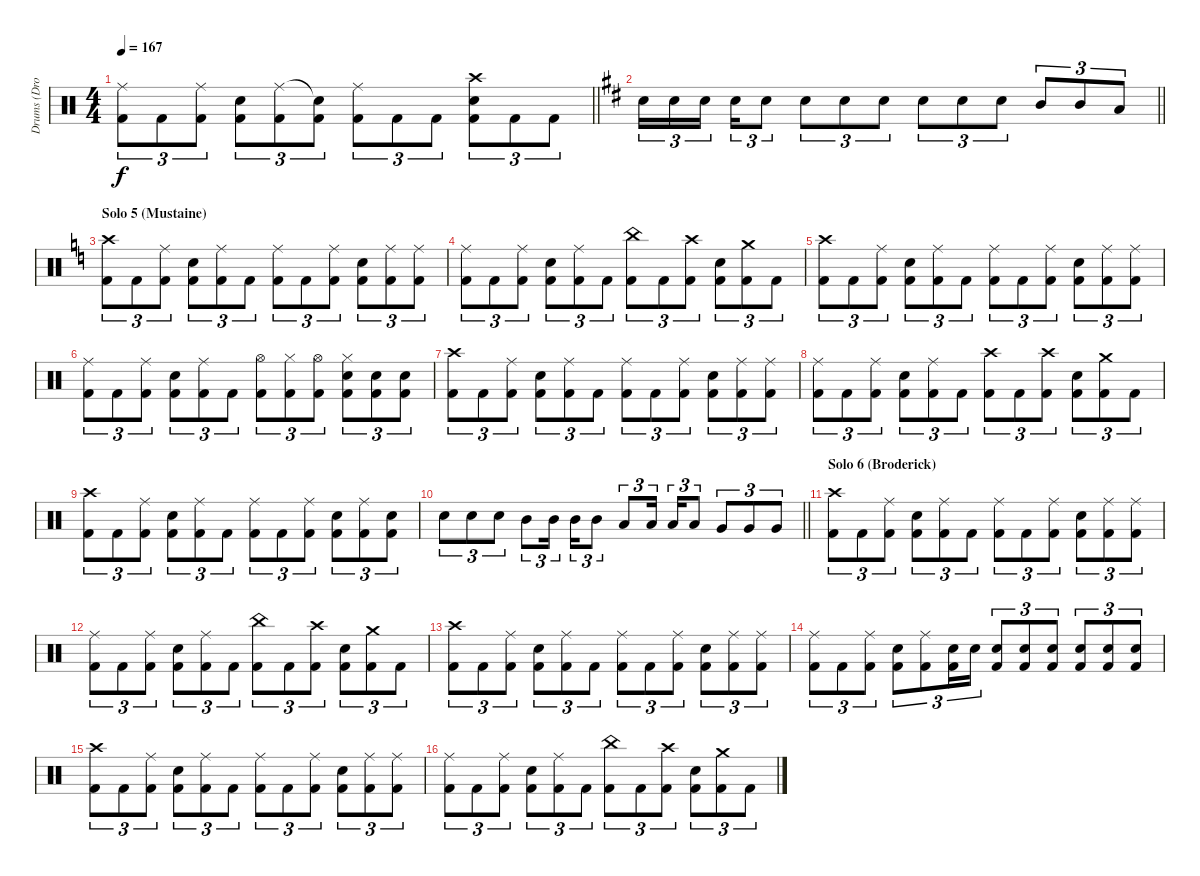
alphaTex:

\track ("Drums (Drover)" "Drums (Dro") {instrument percussion}
\staff {score}
\articulation defaults
\ts (4 4)
\tempo 167
\clef neutral
\barLineRight lightlight
\ks c
("Ride (middle)" "Kick (hit) 2").8{tu (3 2) dy f} "Kick (hit) 2".8{tu (3 2)} ("Ride (middle)" "Kick (hit) 2").8{tu (3 2)} ("Electric Snare (hit)" "Kick (hit) 2").8{tu (3 2)} ("Ride (middle)" "Kick (hit) 2").8{tu (3 2)} ("Snare (hit)"{t} "Kick (hit) 2").8{tu (3 2)} ("Ride (middle)" "Kick (hit) 2").8{tu (3 2)} "Kick (hit) 2".8{tu (3 2)} "Kick (hit) 2".8{tu (3 2)} ("Crash high (hit)" "Electric Snare (hit)" "Kick (hit) 2").8{tu (3 2)} "Kick (hit) 2".8{tu (3 2)} "Kick (hit) 2".8{tu (3 2)} |
\barLineRight lightlight
\ks d "Electric Snare (hit)".16{tu (3 2)} "Electric Snare (hit)".16{tu (3 2)} "Electric Snare (hit)".16{tu (3 2) beam splitsecondary} "Electric Snare (hit)".16{tu (3 2)} "Electric Snare (hit)".8{tu (3 2)} "Electric Snare (hit)".8{tu (3 2)} "Electric Snare (hit)".8{tu (3 2)} "Electric Snare (hit)".8{tu (3 2)} "Electric Snare (hit)".8{tu (3 2)} "Electric Snare (hit)".8{tu (3 2)} "Electric Snare (hit)".8{tu (3 2)} "Mid Tom (hit)".8{tu (3 2)} "Mid Tom (hit)".8{tu (3 2)} "Low Tom (hit)".8{tu (3 2)}
|
\section ("" "Solo 5 (Mustaine)")
\ks c
("Crash high (hit)" "Kick (hit) 2").8{tu (3 2)} "Kick (hit) 2".8{tu (3 2)} ("Ride (middle)" "Kick (hit) 2").8{tu (3 2)} ("Electric Snare (hit)" "Kick (hit) 2").8{tu (3 2)} ("Ride (middle)" "Kick (hit) 2").8{tu (3 2)} "Kick (hit) 2".8{tu (3 2)} ("Ride (middle)" "Kick (hit) 2").8{tu (3 2)} "Kick (hit) 2".8{tu (3 2)} ("Ride (middle)" "Kick (hit) 2").8{tu (3 2)} ("Electric Snare (hit)" "Kick (hit) 2").8{tu (3 2)} ("Ride (middle)" "Kick (hit) 2").8{tu (3 2)} ("Ride (middle)" "Kick (hit) 2").8{tu (3 2)} |
("Ride (middle)" "Kick (hit) 2").8{tu (3 2)} "Kick (hit) 2".8{tu (3 2)} ("Ride (middle)" "Kick (hit) 2").8{tu (3 2)} ("Electric Snare (hit)" "Kick (hit) 2").8{tu (3 2)} ("Ride (middle)" "Kick (hit) 2").8{tu (3 2)} "Kick (hit) 2".8{tu (3 2)} ("China (hit)" "Kick (hit) 2").8{tu (3 2)} "Kick (hit) 2".8{tu (3 2)} ("Crash high (hit)" "Kick (hit) 2").8{tu (3 2)} ("Electric Snare (hit)" "Kick (hit) 2").8{tu (3 2)} ("Crash medium (hit)" "Kick (hit) 2").8{tu (3 2)} "Kick (hit) 2".8{tu (3 2)} |
("Crash high (hit)" "Kick (hit) 2").8{tu (3 2)} "Kick (hit) 2".8{tu (3 2)} ("Ride (middle)" "Kick (hit) 2").8{tu (3 2)} ("Electric Snare (hit)" "Kick (hit) 2").8{tu (3 2)} ("Ride (middle)" "Kick (hit) 2").8{tu (3 2)} "Kick (hit) 2".8{tu (3 2)} ("Ride (middle)" "Kick (hit) 2").8{tu (3 2)} "Kick (hit) 2".8{tu (3 2)} ("Ride (middle)" "Kick (hit) 2").8{tu (3 2)} ("Electric Snare (hit)" "Kick (hit) 2").8{tu (3 2)} ("Ride (middle)" "Kick (hit) 2").8{tu (3 2)} ("Ride (middle)" "Kick (hit) 2").8{tu (3 2)} |
("Ride (middle)" "Kick (hit) 2").8{tu (3 2)} "Kick (hit) 2".8{tu (3 2)} ("Ride (middle)" "Kick (hit) 2").8{tu (3 2)} ("Electric Snare (hit)" "Kick (hit) 2").8{tu (3 2)} ("Ride (middle)" "Kick (hit) 2").8{tu (3 2)} "Kick (hit) 2".8{tu (3 2)} ("Hi-Hat (open)" "Kick (hit) 2").8{tu (3 2)} ("Hi-Hat (closed)" "Kick (hit) 2").8{tu (3 2)} ("Hi-Hat (open)" "Kick (hit) 2").8{tu (3 2)} ("Hi-Hat (closed)" "Electric Snare (hit)" "Kick (hit) 2").8{tu (3 2)} ("Electric Snare (hit)" "Kick (hit) 2").8{tu (3 2)} ("Electric Snare (hit)" "Kick (hit) 2").8{tu (3 2)} |
("Crash high (hit)" "Kick (hit) 2").8{tu (3 2)} "Kick (hit) 2".8{tu (3 2)} ("Ride (middle)" "Kick (hit) 2").8{tu (3 2)} ("Electric Snare (hit)" "Kick (hit) 2").8{tu (3 2)} ("Ride (middle)" "Kick (hit) 2").8{tu (3 2)} "Kick (hit) 2".8{tu (3 2)} ("Ride (middle)" "Kick (hit) 2").8{tu (3 2)} "Kick (hit) 2".8{tu (3 2)} ("Ride (middle)" "Kick (hit) 2").8{tu (3 2)} ("Electric Snare (hit)" "Kick (hit) 2").8{tu (3 2)} ("Ride (middle)" "Kick (hit) 2").8{tu (3 2)} ("Ride (middle)" "Kick (hit) 2").8{tu (3 2)} |
("Ride (middle)" "Kick (hit) 2").8{tu (3 2)} "Kick (hit) 2".8{tu (3 2)} ("Ride (middle)" "Kick (hit) 2").8{tu (3 2)} ("Electric Snare (hit)" "Kick (hit) 2").8{tu (3 2)} ("Ride (middle)" "Kick (hit) 2").8{tu (3 2)} "Kick (hit) 2".8{tu (3 2)} ("Crash high (hit)" "Kick (hit) 2").8{tu (3 2)} "Kick (hit) 2".8{tu (3 2)} ("Crash high (hit)" "Kick (hit) 2").8{tu (3 2)} ("Electric Snare (hit)" "Kick (hit) 2").8{tu (3 2)} ("Crash medium (hit)" "Kick (hit) 2").8{tu (3 2)} "Kick (hit) 2".8{tu (3 2)} |
("Crash high (hit)" "Kick (hit) 2").8{tu (3 2)} "Kick (hit) 2".8{tu (3 2)} ("Ride (middle)" "Kick (hit) 2").8{tu (3 2)} ("Electric Snare (hit)" "Kick (hit) 2").8{tu (3 2)} ("Ride (middle)" "Kick (hit) 2").8{tu (3 2)} "Kick (hit) 2".8{tu (3 2)} ("Ride (middle)" "Kick (hit) 2").8{tu (3 2)} "Kick (hit) 2".8{tu (3 2)} ("Ride (middle)" "Kick (hit) 2").8{tu (3 2)} ("Electric Snare (hit)" "Kick (hit) 2").8{tu (3 2)} ("Ride (middle)" "Kick (hit) 2").8{tu (3 2)} ("Electric Snare (hit)" "Kick (hit) 2").8{tu (3 2)} |
\barLineRight lightlight "Electric Snare (hit)".8{tu (3 2)} "Electric Snare (hit)".8{tu (3 2)} "Electric Snare (hit)".8{tu (3 2)} "Mid Tom (hit)".8{tu (3 2)} "Mid Tom (hit)".16{tu (3 2) beam splitsecondary} "Mid Tom (hit)".16{tu (3 2)} "Mid Tom (hit)".8{tu (3 2)} "Low Tom (hit)".8{tu (3 2)} "Low Tom (hit)".16{tu (3 2) beam splitsecondary} "Low Tom (hit)".16{tu (3 2)} "Low Tom (hit)".8{tu (3 2)} "Very Low Tom (hit)".8{tu (3 2)} "Very Low Tom (hit)".8{tu (3 2)} "Very Low Tom (hit)".8{tu (3 2)}
|
\section ("" "Solo 6 (Broderick)")
("Crash high (hit)" "Kick (hit) 2").8{tu (3 2)} "Kick (hit) 2".8{tu (3 2)} ("Ride (middle)" "Kick (hit) 2").8{tu (3 2)} ("Electric Snare (hit)" "Kick (hit) 2").8{tu (3 2)} ("Ride (middle)" "Kick (hit) 2").8{tu (3 2)} "Kick (hit) 2".8{tu (3 2)} ("Ride (middle)" "Kick (hit) 2").8{tu (3 2)} "Kick (hit) 2".8{tu (3 2)} ("Ride (middle)" "Kick (hit) 2").8{tu (3 2)} ("Electric Snare (hit)" "Kick (hit) 2").8{tu (3 2)} ("Ride (middle)" "Kick (hit) 2").8{tu (3 2)} ("Ride (middle)" "Kick (hit) 2").8{tu (3 2)} |
("Ride (middle)" "Kick (hit) 2").8{tu (3 2)} "Kick (hit) 2".8{tu (3 2)} ("Ride (middle)" "Kick (hit) 2").8{tu (3 2)} ("Electric Snare (hit)" "Kick (hit) 2").8{tu (3 2)} ("Ride (middle)" "Kick (hit) 2").8{tu (3 2)} "Kick (hit) 2".8{tu (3 2)} ("China (hit)" "Kick (hit) 2").8{tu (3 2)} "Kick (hit) 2".8{tu (3 2)} ("Crash high (hit)" "Kick (hit) 2").8{tu (3 2)} ("Electric Snare (hit)" "Kick (hit) 2").8{tu (3 2)} ("Crash medium (hit)" "Kick (hit) 2").8{tu (3 2)} "Kick (hit) 2".8{tu (3 2)} |
("Crash high (hit)" "Kick (hit) 2").8{tu (3 2)} "Kick (hit) 2".8{tu (3 2)} ("Ride (middle)" "Kick (hit) 2").8{tu (3 2)} ("Electric Snare (hit)" "Kick (hit) 2").8{tu (3 2)} ("Ride (middle)" "Kick (hit) 2").8{tu (3 2)} "Kick (hit) 2".8{tu (3 2)} ("Ride (middle)" "Kick (hit) 2").8{tu (3 2)} "Kick (hit) 2".8{tu (3 2)} ("Ride (middle)" "Kick (hit) 2").8{tu (3 2)} ("Electric Snare (hit)" "Kick (hit) 2").8{tu (3 2)} ("Ride (middle)" "Kick (hit) 2").8{tu (3 2)} ("Ride (middle)" "Kick (hit) 2").8{tu (3 2)} |
("Ride (middle)" "Kick (hit) 2").8{tu (3 2)} "Kick (hit) 2".8{tu (3 2)} ("Ride (middle)" "Kick (hit) 2").8{tu (3 2)} ("Electric Snare (hit)" "Kick (hit) 2").8{tu (3 2)} ("Ride (middle)" "Kick (hit) 2").8{tu (3 2)} ("Electric Snare (hit)" "Kick (hit) 2").16{tu (3 2)} "Electric Snare (hit)".16{tu (3 2)} ("Electric Snare (hit)" "Kick (hit) 2").8{tu (3 2)} ("Electric Snare (hit)" "Kick (hit) 2").8{tu (3 2)} ("Electric Snare (hit)" "Kick (hit) 2").8{tu (3 2)} ("Electric Snare (hit)" "Kick (hit) 2").8{tu (3 2)} ("Electric Snare (hit)" "Kick (hit) 2").8{tu (3 2)} ("Electric Snare (hit)" "Kick (hit) 2").8{tu (3 2)} |
("Crash high (hit)" "Kick (hit) 2").8{tu (3 2)} "Kick (hit) 2".8{tu (3 2)} ("Ride (middle)" "Kick (hit) 2").8{tu (3 2)} ("Electric Snare (hit)" "Kick (hit) 2").8{tu (3 2)} ("Ride (middle)" "Kick (hit) 2").8{tu (3 2)} "Kick (hit) 2".8{tu (3 2)} ("Ride (middle)" "Kick (hit) 2").8{tu (3 2)} "Kick (hit) 2".8{tu (3 2)} ("Ride (middle)" "Kick (hit) 2").8{tu (3 2)} ("Electric Snare (hit)" "Kick (hit) 2").8{tu (3 2)} ("Ride (middle)" "Kick (hit) 2").8{tu (3 2)} ("Ride (middle)" "Kick (hit) 2").8{tu (3 2)} |
("Ride (middle)" "Kick (hit) 2").8{tu (3 2)} "Kick (hit) 2".8{tu (3 2)} ("Ride (middle)" "Kick (hit) 2").8{tu (3 2)} ("Electric Snare (hit)" "Kick (hit) 2").8{tu (3 2)} ("Ride (middle)" "Kick (hit) 2").8{tu (3 2)} "Kick (hit) 2".8{tu (3 2)} ("China (hit)" "Kick (hit) 2").8{tu (3 2)} "Kick (hit) 2".8{tu (3 2)} ("Crash high (hit)" "Kick (hit) 2").8{tu (3 2)} ("Electric Snare (hit)" "Kick (hit) 2").8{tu (3 2)} ("Crash medium (hit)" "Kick (hit) 2").8{tu (3 2)} "Kick (hit) 2".8{tu (3 2)}
